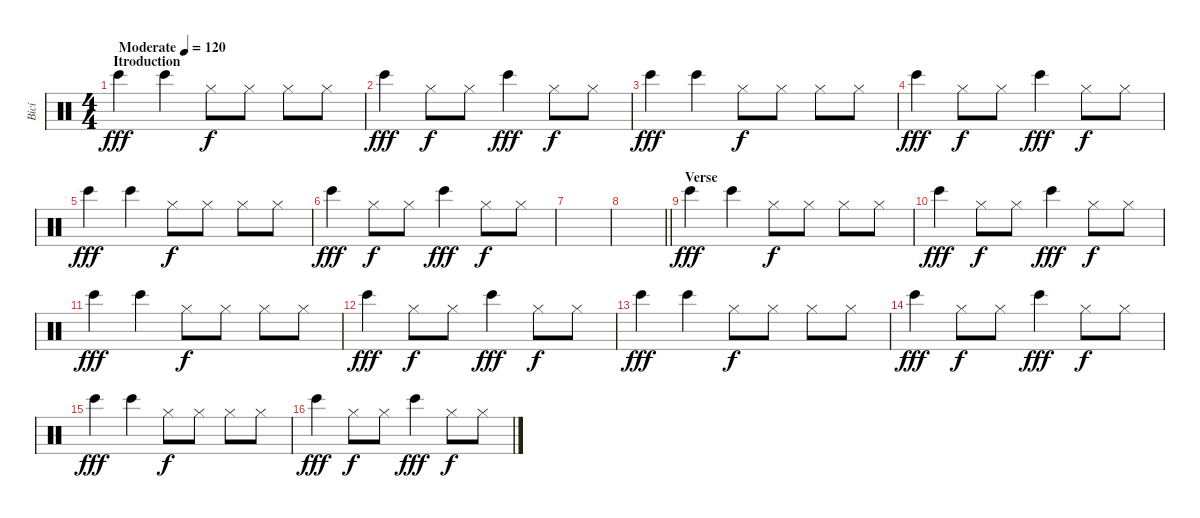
\track ("Bicí" "Bicí") {instrument percussion}
\staff {score}
\articulation defaults
\ts (4 4)
\section ("" "Itroduction")
\tempo (120 "Moderate")
\clef neutral
\ks c "Bongo High (hit)".4{dy fff} "Bongo High (hit)".4 "Hi-Hat (closed)".8{dy f} "Hi-Hat (closed)".8 "Hi-Hat (closed)".8 "Hi-Hat (closed)".8
|
"Bongo High (hit)".4{dy fff} "Hi-Hat (closed)".8{dy f} "Hi-Hat (closed)".8 "Bongo High (hit)".4{dy fff} "Hi-Hat (closed)".8{dy f} "Hi-Hat (closed)".8 |
"Bongo High (hit)".4{dy fff} "Bongo High (hit)".4 "Hi-Hat (closed)".8{dy f} "Hi-Hat (closed)".8 "Hi-Hat (closed)".8 "Hi-Hat (closed)".8 |
"Bongo High (hit)".4{dy fff} "Hi-Hat (closed)".8{dy f} "Hi-Hat (closed)".8 "Bongo High (hit)".4{dy fff} "Hi-Hat (closed)".8{dy f} "Hi-Hat (closed)".8 |
"Bongo High (hit)".4{dy fff} "Bongo High (hit)".4 "Hi-Hat (closed)".8{dy f} "Hi-Hat (closed)".8 "Hi-Hat (closed)".8 "Hi-Hat (closed)".8 |
"Bongo High (hit)".4{dy fff} "Hi-Hat (closed)".8{dy f} "Hi-Hat (closed)".8 "Bongo High (hit)".4{dy fff} "Hi-Hat (closed)".8{dy f} "Hi-Hat (closed)".8 |
|
\barLineRight lightlight
|
\section ("" "Verse")
"Bongo High (hit)".4{dy fff} "Bongo High (hit)".4 "Hi-Hat (closed)".8{dy f} "Hi-Hat (closed)".8 "Hi-Hat (closed)".8 "Hi-Hat (closed)".8 |
"Bongo High (hit)".4{dy fff} "Hi-Hat (closed)".8{dy f} "Hi-Hat (closed)".8 "Bongo High (hit)".4{dy fff} "Hi-Hat (closed)".8{dy f} "Hi-Hat (closed)".8 |
"Bongo High (hit)".4{dy fff} "Bongo High (hit)".4 "Hi-Hat (closed)".8{dy f} "Hi-Hat (closed)".8 "Hi-Hat (closed)".8 "Hi-Hat (closed)".8 |
"Bongo High (hit)".4{dy fff} "Hi-Hat (closed)".8{dy f} "Hi-Hat (closed)".8 "Bongo High (hit)".4{dy fff} "Hi-Hat (closed)".8{dy f} "Hi-Hat (closed)".8 |
"Bongo High (hit)".4{dy fff} "Bongo High (hit)".4 "Hi-Hat (closed)".8{dy f} "Hi-Hat (closed)".8 "Hi-Hat (closed)".8 "Hi-Hat (closed)".8 |
"Bongo High (hit)".4{dy fff} "Hi-Hat (closed)".8{dy f} "Hi-Hat (closed)".8 "Bongo High (hit)".4{dy fff} "Hi-Hat (closed)".8{dy f} "Hi-Hat (closed)".8 |
"Bongo High (hit)".4{dy fff} "Bongo High (hit)".4 "Hi-Hat (closed)".8{dy f} "Hi-Hat (closed)".8 "Hi-Hat (closed)".8 "Hi-Hat (closed)".8 |
"Bongo High (hit)".4{dy fff} "Hi-Hat (closed)".8{dy f} "Hi-Hat (closed)".8 "Bongo High (hit)".4{dy fff} "Hi-Hat (closed)".8{dy f} "Hi-Hat (closed)".8
